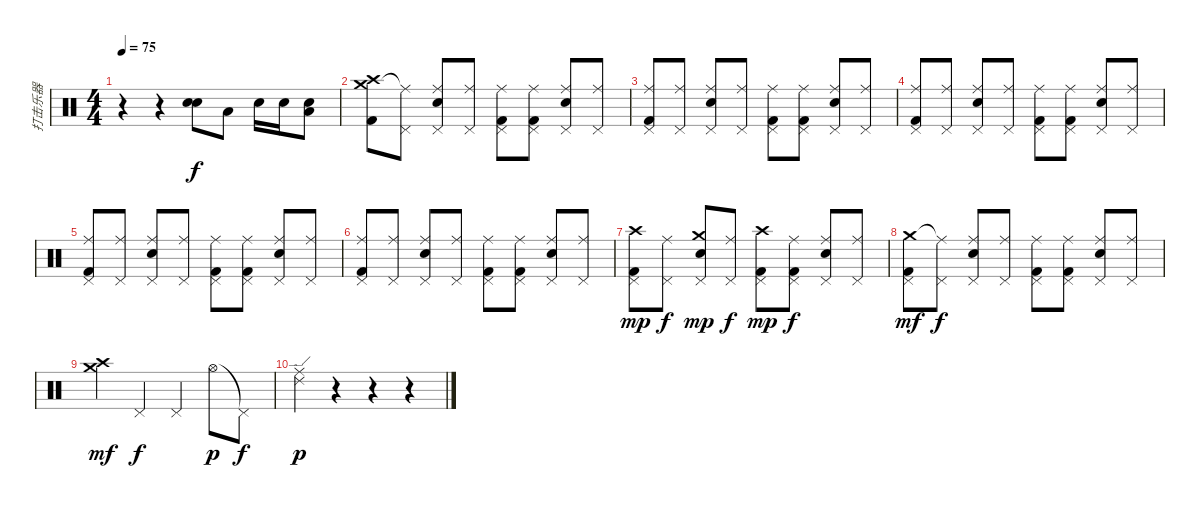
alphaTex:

\track ("打击乐器" "打击乐器") {instrument percussion}
\staff {score}
\articulation defaults
\ts (4 4)
\tempo 75
\clef neutral
\ks c
r.4{dy f} r.4 ("Electric Snare (hit)" "Electric Snare (hit)").8 "Low Tom (hit)".8 "Electric Snare (hit)".16 "Electric Snare (hit)".16 ("Low Tom (hit)" "Electric Snare (hit)").8 |
("Crash high (hit)" "Crash medium (hit)" "Kick (hit) 2").8 ("Pedal Hi-Hat (hit)" "Ride (middle)"{t}).8 ("Pedal Hi-Hat (hit)" "Ride (middle)" "Electric Snare (hit)").8 ("Pedal Hi-Hat (hit)" "Ride (middle)").8 ("Pedal Hi-Hat (hit)" "Ride (middle)" "Kick (hit) 2").8 ("Pedal Hi-Hat (hit)" "Ride (middle)" "Kick (hit) 2").8 ("Pedal Hi-Hat (hit)" "Ride (middle)" "Electric Snare (hit)").8 ("Pedal Hi-Hat (hit)" "Ride (middle)").8 |
("Pedal Hi-Hat (hit)" "Ride (middle)" "Kick (hit) 2").8 ("Pedal Hi-Hat (hit)" "Ride (middle)").8 ("Pedal Hi-Hat (hit)" "Ride (middle)" "Electric Snare (hit)").8 ("Pedal Hi-Hat (hit)" "Ride (middle)").8 ("Pedal Hi-Hat (hit)" "Ride (middle)" "Kick (hit) 2").8 ("Pedal Hi-Hat (hit)" "Ride (middle)" "Kick (hit) 2").8 ("Pedal Hi-Hat (hit)" "Ride (middle)" "Electric Snare (hit)").8 ("Pedal Hi-Hat (hit)" "Ride (middle)").8 |
("Pedal Hi-Hat (hit)" "Ride (middle)" "Kick (hit) 2").8 ("Pedal Hi-Hat (hit)" "Ride (middle)").8 ("Pedal Hi-Hat (hit)" "Ride (middle)" "Electric Snare (hit)").8 ("Pedal Hi-Hat (hit)" "Ride (middle)").8 ("Pedal Hi-Hat (hit)" "Ride (middle)" "Kick (hit) 2").8 ("Pedal Hi-Hat (hit)" "Ride (middle)" "Kick (hit) 2").8 ("Pedal Hi-Hat (hit)" "Ride (middle)" "Electric Snare (hit)").8 ("Pedal Hi-Hat (hit)" "Ride (middle)").8 |
("Pedal Hi-Hat (hit)" "Ride (middle)" "Kick (hit) 2").8 ("Pedal Hi-Hat (hit)" "Ride (middle)").8 ("Pedal Hi-Hat (hit)" "Ride (middle)" "Electric Snare (hit)").8 ("Pedal Hi-Hat (hit)" "Ride (middle)").8 ("Pedal Hi-Hat (hit)" "Ride (middle)" "Kick (hit) 2").8 ("Pedal Hi-Hat (hit)" "Ride (middle)" "Kick (hit) 2").8 ("Pedal Hi-Hat (hit)" "Ride (middle)" "Electric Snare (hit)").8 ("Pedal Hi-Hat (hit)" "Ride (middle)").8 |
("Pedal Hi-Hat (hit)" "Ride (middle)" "Kick (hit) 2").8 ("Pedal Hi-Hat (hit)" "Ride (middle)").8 ("Pedal Hi-Hat (hit)" "Ride (middle)" "Electric Snare (hit)").8 ("Pedal Hi-Hat (hit)" "Ride (middle)").8 ("Pedal Hi-Hat (hit)" "Ride (middle)" "Kick (hit) 2").8 ("Pedal Hi-Hat (hit)" "Ride (middle)" "Kick (hit) 2").8 ("Pedal Hi-Hat (hit)" "Ride (middle)" "Electric Snare (hit)").8 ("Pedal Hi-Hat (hit)" "Ride (middle)").8 |
("Crash high (hit)" "Pedal Hi-Hat (hit)" "Kick (hit) 2").8{dy mp} ("Pedal Hi-Hat (hit)" "Ride (middle)").8{dy f} ("Crash medium (hit)" "Pedal Hi-Hat (hit)" "Electric Snare (hit)").8{dy mp} ("Pedal Hi-Hat (hit)" "Ride (middle)").8{dy f} ("Crash high (hit)" "Pedal Hi-Hat (hit)" "Kick (hit) 2").8{dy mp} ("Pedal Hi-Hat (hit)" "Ride (middle)" "Kick (hit) 2").8{dy f} ("Pedal Hi-Hat (hit)" "Ride (middle)" "Electric Snare (hit)").8 ("Pedal Hi-Hat (hit)" "Ride (middle)").8 |
("Pedal Hi-Hat (hit)" "Crash medium (hit)" "Kick (hit) 2").8{dy mf} ("Pedal Hi-Hat (hit)" "Ride (middle)"{t}).8{dy f} ("Pedal Hi-Hat (hit)" "Ride (middle)" "Electric Snare (hit)").8 ("Pedal Hi-Hat (hit)" "Ride (middle)").8 ("Pedal Hi-Hat (hit)" "Ride (middle)" "Kick (hit) 2").8 ("Pedal Hi-Hat (hit)" "Ride (middle)" "Kick (hit) 2").8 ("Pedal Hi-Hat (hit)" "Ride (middle)" "Electric Snare (hit)").8 ("Pedal Hi-Hat (hit)" "Ride (middle)").8 |
("Crash medium (hit)" "Crash high (hit)").4{dy mf} "Pedal Hi-Hat (hit)".4{dy f} "Pedal Hi-Hat (hit)".4 "Hi-Hat (open)".8{dy p} "Pedal Hi-Hat (hit)"{t}.8{dy f} |
("Ride (middle)" "Ride (edge) 2").4{dy p} r.4 r.4 r.4
